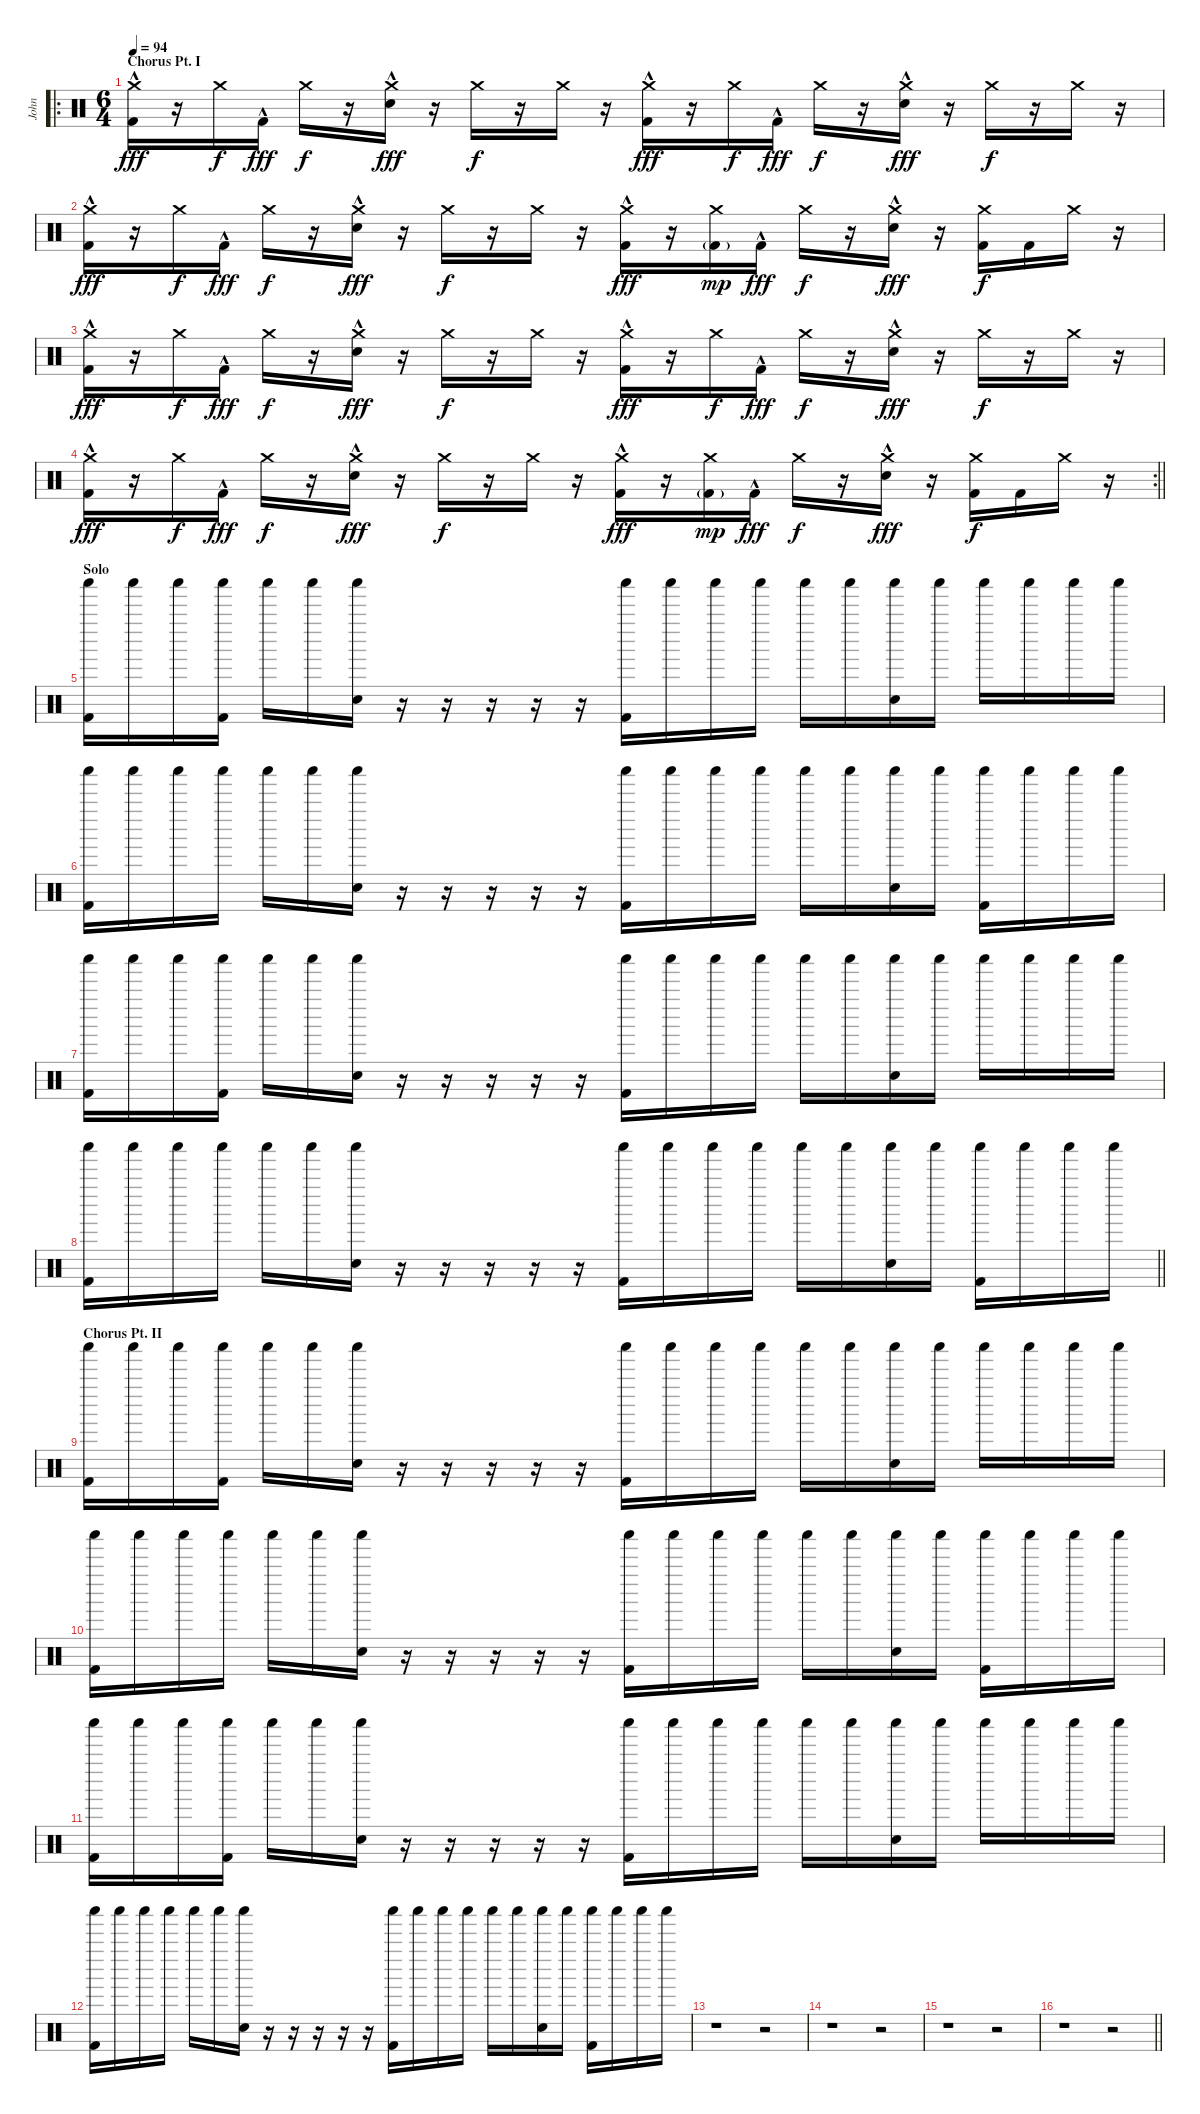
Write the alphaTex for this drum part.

\track ("John" "John") {instrument percussion}
\staff {score}
\articulation defaults
\ro
\ts (6 4)
\section ("" "Chorus Pt. I")
\tempo 94
\clef neutral
\ks c
("Crash medium (hit)" "Kick (hit) 2"{hac}).16{dy fff} r.16 "Crash medium (hit)".16{dy f} "Kick (hit) 2"{hac}.16{dy fff} "Crash medium (hit)".16{dy f} r.16 ("Crash medium (hit)" "Snare (hit) 2"{hac}).16{dy fff} r.16 "Crash medium (hit)".16{dy f} r.16 "Crash medium (hit)".16 r.16 ("Crash medium (hit)" "Kick (hit) 2"{hac}).16{dy fff} r.16 "Crash medium (hit)".16{dy f} "Kick (hit) 2"{hac}.16{dy fff} "Crash medium (hit)".16{dy f} r.16 ("Crash medium (hit)" "Snare (hit) 2"{hac}).16{dy fff} r.16 "Crash medium (hit)".16{dy f} r.16 "Crash medium (hit)".16 r.16 |
("Crash medium (hit)" "Kick (hit) 2"{hac}).16{dy fff} r.16 "Crash medium (hit)".16{dy f} "Kick (hit) 2"{hac}.16{dy fff} "Crash medium (hit)".16{dy f} r.16 ("Crash medium (hit)" "Snare (hit) 2"{hac}).16{dy fff} r.16 "Crash medium (hit)".16{dy f} r.16 "Crash medium (hit)".16 r.16 ("Crash medium (hit)" "Kick (hit) 2"{hac}).16{dy fff} r.16 ("Crash medium (hit)" "Kick (hit) 2"{g}).16{dy mp} "Kick (hit) 2"{hac}.16{dy fff} "Crash medium (hit)".16{dy f} r.16 ("Crash medium (hit)" "Snare (hit) 2"{hac}).16{dy fff} r.16 ("Crash medium (hit)" "Kick (hit) 2").16{dy f} "Kick (hit) 2".16 "Crash medium (hit)".16 r.16 |
("Crash medium (hit)" "Kick (hit) 2"{hac}).16{dy fff} r.16 "Crash medium (hit)".16{dy f} "Kick (hit) 2"{hac}.16{dy fff} "Crash medium (hit)".16{dy f} r.16 ("Crash medium (hit)" "Snare (hit) 2"{hac}).16{dy fff} r.16 "Crash medium (hit)".16{dy f} r.16 "Crash medium (hit)".16 r.16 ("Crash medium (hit)" "Kick (hit) 2"{hac}).16{dy fff} r.16 "Crash medium (hit)".16{dy f} "Kick (hit) 2"{hac}.16{dy fff} "Crash medium (hit)".16{dy f} r.16 ("Crash medium (hit)" "Snare (hit) 2"{hac}).16{dy fff} r.16 "Crash medium (hit)".16{dy f} r.16 "Crash medium (hit)".16 r.16 |
\rc 2
\barLineRight lightlight
("Crash medium (hit)" "Kick (hit) 2"{hac}).16{dy fff} r.16 "Crash medium (hit)".16{dy f} "Kick (hit) 2"{hac}.16{dy fff} "Crash medium (hit)".16{dy f} r.16 ("Crash medium (hit)" "Snare (hit) 2"{hac}).16{dy fff} r.16 "Crash medium (hit)".16{dy f} r.16 "Crash medium (hit)".16 r.16 ("Crash medium (hit)" "Kick (hit) 2"{hac}).16{dy fff} r.16 ("Crash medium (hit)" "Kick (hit) 2"{g}).16{dy mp} "Kick (hit) 2"{hac}.16{dy fff} "Crash medium (hit)".16{dy f} r.16 ("Crash medium (hit)" "Snare (hit) 2"{hac}).16{dy fff} r.16 ("Crash medium (hit)" "Kick (hit) 2").16{dy f} "Kick (hit) 2".16 "Crash medium (hit)".16 r.16 |
\section ("" "Solo")
("Shaker (hit)" "Kick (hit) 2").16 "Shaker (hit)".16 "Shaker (hit)".16 ("Shaker (hit)" "Kick (hit) 2").16 "Shaker (hit)".16 "Shaker (hit)".16 ("Shaker (hit)" "Snare (hit) 2").16 r.16 r.16 r.16 r.16 r.16 ("Shaker (hit)" "Kick (hit) 2").16 "Shaker (hit)".16 "Shaker (hit)".16 "Shaker (hit)".16 "Shaker (hit)".16 "Shaker (hit)".16 ("Shaker (hit)" "Snare (hit) 2").16 "Shaker (hit)".16 "Shaker (hit)".16 "Shaker (hit)".16 "Shaker (hit)".16 "Shaker (hit)".16 |
("Shaker (hit)" "Kick (hit) 2").16 "Shaker (hit)".16 "Shaker (hit)".16 "Shaker (hit)".16 "Shaker (hit)".16 "Shaker (hit)".16 ("Shaker (hit)" "Snare (hit) 2").16 r.16 r.16 r.16 r.16 r.16 ("Shaker (hit)" "Kick (hit) 2").16 "Shaker (hit)".16 "Shaker (hit)".16 "Shaker (hit)".16 "Shaker (hit)".16 "Shaker (hit)".16 ("Shaker (hit)" "Snare (hit) 2").16 "Shaker (hit)".16 ("Shaker (hit)" "Kick (hit) 2").16 "Shaker (hit)".16 "Shaker (hit)".16 "Shaker (hit)".16 |
("Shaker (hit)" "Kick (hit) 2").16 "Shaker (hit)".16 "Shaker (hit)".16 ("Shaker (hit)" "Kick (hit) 2").16 "Shaker (hit)".16 "Shaker (hit)".16 ("Shaker (hit)" "Snare (hit) 2").16 r.16 r.16 r.16 r.16 r.16 ("Shaker (hit)" "Kick (hit) 2").16 "Shaker (hit)".16 "Shaker (hit)".16 "Shaker (hit)".16 "Shaker (hit)".16 "Shaker (hit)".16 ("Shaker (hit)" "Snare (hit) 2").16 "Shaker (hit)".16 "Shaker (hit)".16 "Shaker (hit)".16 "Shaker (hit)".16 "Shaker (hit)".16 |
\barLineRight lightlight
("Shaker (hit)" "Kick (hit) 2").16 "Shaker (hit)".16 "Shaker (hit)".16 "Shaker (hit)".16 "Shaker (hit)".16 "Shaker (hit)".16 ("Shaker (hit)" "Snare (hit) 2").16 r.16 r.16 r.16 r.16 r.16 ("Shaker (hit)" "Kick (hit) 2").16 "Shaker (hit)".16 "Shaker (hit)".16 "Shaker (hit)".16 "Shaker (hit)".16 "Shaker (hit)".16 ("Shaker (hit)" "Snare (hit) 2").16 "Shaker (hit)".16 ("Shaker (hit)" "Kick (hit) 2").16 "Shaker (hit)".16 "Shaker (hit)".16 "Shaker (hit)".16 |
\section ("" "Chorus Pt. II")
("Shaker (hit)" "Kick (hit) 2").16 "Shaker (hit)".16 "Shaker (hit)".16 ("Shaker (hit)" "Kick (hit) 2").16 "Shaker (hit)".16 "Shaker (hit)".16 ("Shaker (hit)" "Snare (hit) 2").16 r.16 r.16 r.16 r.16 r.16 ("Shaker (hit)" "Kick (hit) 2").16 "Shaker (hit)".16 "Shaker (hit)".16 "Shaker (hit)".16 "Shaker (hit)".16 "Shaker (hit)".16 ("Shaker (hit)" "Snare (hit) 2").16 "Shaker (hit)".16 "Shaker (hit)".16 "Shaker (hit)".16 "Shaker (hit)".16 "Shaker (hit)".16 |
("Shaker (hit)" "Kick (hit) 2").16 "Shaker (hit)".16 "Shaker (hit)".16 "Shaker (hit)".16 "Shaker (hit)".16 "Shaker (hit)".16 ("Shaker (hit)" "Snare (hit) 2").16 r.16 r.16 r.16 r.16 r.16 ("Shaker (hit)" "Kick (hit) 2").16 "Shaker (hit)".16 "Shaker (hit)".16 "Shaker (hit)".16 "Shaker (hit)".16 "Shaker (hit)".16 ("Shaker (hit)" "Snare (hit) 2").16 "Shaker (hit)".16 ("Shaker (hit)" "Kick (hit) 2").16 "Shaker (hit)".16 "Shaker (hit)".16 "Shaker (hit)".16 |
("Shaker (hit)" "Kick (hit) 2").16 "Shaker (hit)".16 "Shaker (hit)".16 ("Shaker (hit)" "Kick (hit) 2").16 "Shaker (hit)".16 "Shaker (hit)".16 ("Shaker (hit)" "Snare (hit) 2").16 r.16 r.16 r.16 r.16 r.16 ("Shaker (hit)" "Kick (hit) 2").16 "Shaker (hit)".16 "Shaker (hit)".16 "Shaker (hit)".16 "Shaker (hit)".16 "Shaker (hit)".16 ("Shaker (hit)" "Snare (hit) 2").16 "Shaker (hit)".16 "Shaker (hit)".16 "Shaker (hit)".16 "Shaker (hit)".16 "Shaker (hit)".16 |
("Shaker (hit)" "Kick (hit) 2").16 "Shaker (hit)".16 "Shaker (hit)".16 "Shaker (hit)".16 "Shaker (hit)".16 "Shaker (hit)".16 ("Shaker (hit)" "Snare (hit) 2").16 r.16 r.16 r.16 r.16 r.16 ("Shaker (hit)" "Kick (hit) 2").16 "Shaker (hit)".16 "Shaker (hit)".16 "Shaker (hit)".16 "Shaker (hit)".16 "Shaker (hit)".16 ("Shaker (hit)" "Snare (hit) 2").16 "Shaker (hit)".16 ("Shaker (hit)" "Kick (hit) 2").16 "Shaker (hit)".16 "Shaker (hit)".16 "Shaker (hit)".16 |
r.1 r.2 |
r.1 r.2 |
r.1 r.2 |
\barLineRight lightlight
r.1 r.2
